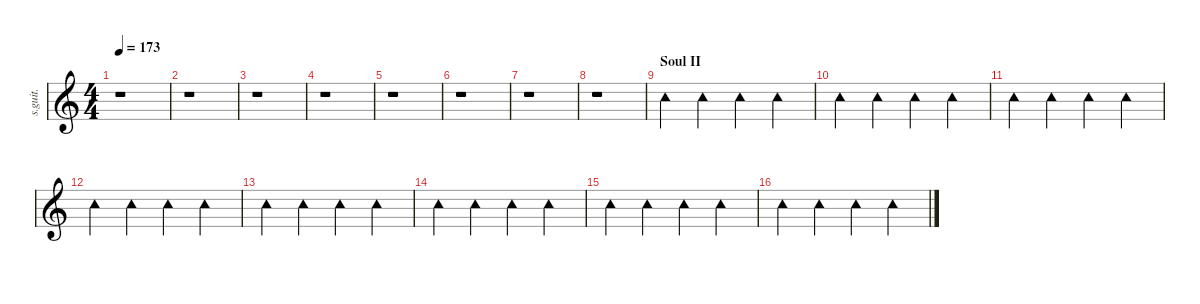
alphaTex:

\defaultSystemsLayout 4
\hideDynamics
\bracketExtendMode nobrackets
\track ("II (Extras)" "s.guit.") {instrument percussion}
\staff {score}
\articulation defaults
\ts (4 4)
\tempo 173
\clef g2
\ks c
r.1{dy mf} |
r.1 |
r.1 |
r.1 |
r.1 |
r.1 |
r.1 |
r.1 |
\section ("" "Soul II")
"Tambourine (hit)".4{lyrics (0 "") lyrics (1 "") lyrics (2 "") lyrics (3 "") lyrics (4 "")} "Tambourine (hit)".4{lyrics (0 "") lyrics (1 "") lyrics (2 "") lyrics (3 "") lyrics (4 "")} "Tambourine (hit)".4{lyrics (0 "") lyrics (1 "") lyrics (2 "") lyrics (3 "") lyrics (4 "")} "Tambourine (hit)".4{lyrics (0 "") lyrics (1 "") lyrics (2 "") lyrics (3 "") lyrics (4 "")} |
"Tambourine (hit)".4{lyrics (0 "") lyrics (1 "") lyrics (2 "") lyrics (3 "") lyrics (4 "")} "Tambourine (hit)".4{lyrics (0 "") lyrics (1 "") lyrics (2 "") lyrics (3 "") lyrics (4 "")} "Tambourine (hit)".4{lyrics (0 "") lyrics (1 "") lyrics (2 "") lyrics (3 "") lyrics (4 "")} "Tambourine (hit)".4{lyrics (0 "") lyrics (1 "") lyrics (2 "") lyrics (3 "") lyrics (4 "")} |
"Tambourine (hit)".4{lyrics (0 "") lyrics (1 "") lyrics (2 "") lyrics (3 "") lyrics (4 "")} "Tambourine (hit)".4{lyrics (0 "") lyrics (1 "") lyrics (2 "") lyrics (3 "") lyrics (4 "")} "Tambourine (hit)".4{lyrics (0 "") lyrics (1 "") lyrics (2 "") lyrics (3 "") lyrics (4 "")} "Tambourine (hit)".4{lyrics (0 "") lyrics (1 "") lyrics (2 "") lyrics (3 "") lyrics (4 "")} |
"Tambourine (hit)".4{lyrics (0 "") lyrics (1 "") lyrics (2 "") lyrics (3 "") lyrics (4 "")} "Tambourine (hit)".4{lyrics (0 "") lyrics (1 "") lyrics (2 "") lyrics (3 "") lyrics (4 "")} "Tambourine (hit)".4{lyrics (0 "") lyrics (1 "") lyrics (2 "") lyrics (3 "") lyrics (4 "")} "Tambourine (hit)".4{lyrics (0 "") lyrics (1 "") lyrics (2 "") lyrics (3 "") lyrics (4 "")} |
"Tambourine (hit)".4{lyrics (0 "") lyrics (1 "") lyrics (2 "") lyrics (3 "") lyrics (4 "")} "Tambourine (hit)".4{lyrics (0 "") lyrics (1 "") lyrics (2 "") lyrics (3 "") lyrics (4 "")} "Tambourine (hit)".4{lyrics (0 "") lyrics (1 "") lyrics (2 "") lyrics (3 "") lyrics (4 "")} "Tambourine (hit)".4{lyrics (0 "") lyrics (1 "") lyrics (2 "") lyrics (3 "") lyrics (4 "")} |
"Tambourine (hit)".4{lyrics (0 "") lyrics (1 "") lyrics (2 "") lyrics (3 "") lyrics (4 "")} "Tambourine (hit)".4{lyrics (0 "") lyrics (1 "") lyrics (2 "") lyrics (3 "") lyrics (4 "")} "Tambourine (hit)".4{lyrics (0 "") lyrics (1 "") lyrics (2 "") lyrics (3 "") lyrics (4 "")} "Tambourine (hit)".4{lyrics (0 "") lyrics (1 "") lyrics (2 "") lyrics (3 "") lyrics (4 "")} |
"Tambourine (hit)".4{lyrics (0 "") lyrics (1 "") lyrics (2 "") lyrics (3 "") lyrics (4 "")} "Tambourine (hit)".4{lyrics (0 "") lyrics (1 "") lyrics (2 "") lyrics (3 "") lyrics (4 "")} "Tambourine (hit)".4{lyrics (0 "") lyrics (1 "") lyrics (2 "") lyrics (3 "") lyrics (4 "")} "Tambourine (hit)".4{lyrics (0 "") lyrics (1 "") lyrics (2 "") lyrics (3 "") lyrics (4 "")} |
"Tambourine (hit)".4{lyrics (0 "") lyrics (1 "") lyrics (2 "") lyrics (3 "") lyrics (4 "")} "Tambourine (hit)".4{lyrics (0 "") lyrics (1 "") lyrics (2 "") lyrics (3 "") lyrics (4 "")} "Tambourine (hit)".4{lyrics (0 "") lyrics (1 "") lyrics (2 "") lyrics (3 "") lyrics (4 "")} "Tambourine (hit)".4{lyrics (0 "") lyrics (1 "") lyrics (2 "") lyrics (3 "") lyrics (4 "")}
